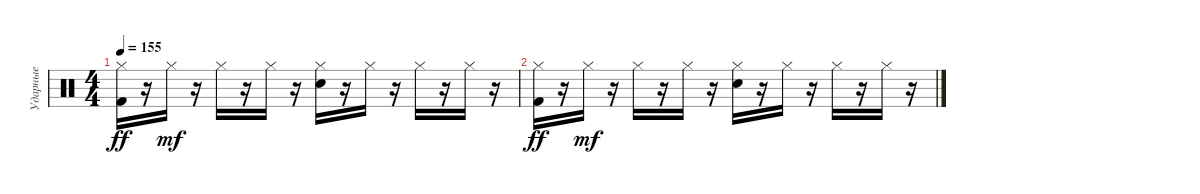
\track ("Ударные" "Ударные") {instrument percussion}
\staff {score}
\articulation defaults
\ts (4 4)
\tempo 155
\clef neutral
\ks c
("Hi-Hat (closed)" "Kick (hit) 2").16{dy ff} r.16 "Hi-Hat (closed)".16{dy mf} r.16 "Hi-Hat (closed)".16 r.16 "Hi-Hat (closed)".16 r.16 ("Hi-Hat (closed)" "Hand Clap (hit)").16 r.16 "Hi-Hat (closed)".16 r.16 "Hi-Hat (closed)".16 r.16 "Hi-Hat (closed)".16 r.16 |
("Hi-Hat (closed)" "Kick (hit) 2").16{dy ff} r.16 "Hi-Hat (closed)".16{dy mf} r.16 "Hi-Hat (closed)".16 r.16 "Hi-Hat (closed)".16 r.16 ("Hi-Hat (closed)" "Hand Clap (hit)").16 r.16 "Hi-Hat (closed)".16 r.16 "Hi-Hat (closed)".16 r.16 "Hi-Hat (closed)".16 r.16
